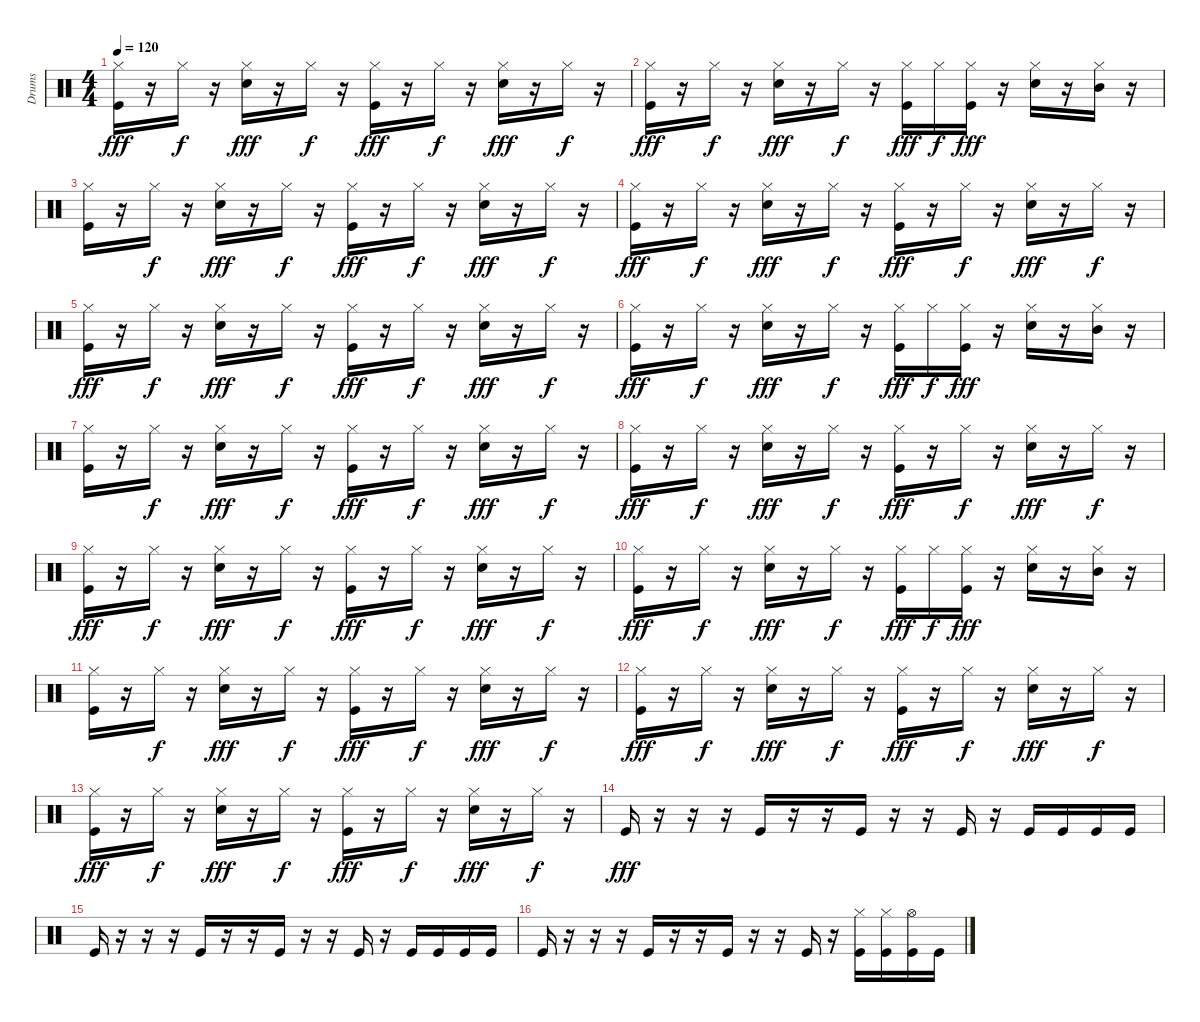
\track ("Drums" "Drums") {instrument percussion}
\staff {score}
\articulation defaults
\ts (4 4)
\tempo 120
\clef neutral
\ks c
("Hi-Hat (closed)" "Kick (hit)").16{dy fff} r.16 "Hi-Hat (closed)".16{dy f} r.16 ("Hi-Hat (closed)" "Electric Snare (hit)").16{dy fff} r.16 "Hi-Hat (closed)".16{dy f} r.16 ("Hi-Hat (closed)" "Kick (hit)").16{dy fff} r.16 "Hi-Hat (closed)".16{dy f} r.16 ("Hi-Hat (closed)" "Electric Snare (hit)").16{dy fff} r.16 "Hi-Hat (closed)".16{dy f} r.16 |
("Hi-Hat (closed)" "Kick (hit)").16{dy fff} r.16 "Hi-Hat (closed)".16{dy f} r.16 ("Hi-Hat (closed)" "Electric Snare (hit)").16{dy fff} r.16 "Hi-Hat (closed)".16{dy f} r.16 ("Hi-Hat (closed)" "Kick (hit)").16{dy fff} "Hi-Hat (closed)".16{dy f} ("Hi-Hat (closed)" "Kick (hit)").16{dy fff} r.16 ("Hi-Hat (closed)" "Electric Snare (hit)").16 r.16 ("Hi-Hat (closed)" "Mid Tom (hit)").16 r.16 |
("Hi-Hat (closed)" "Kick (hit)").16 r.16 "Hi-Hat (closed)".16{dy f} r.16 ("Hi-Hat (closed)" "Electric Snare (hit)").16{dy fff} r.16 "Hi-Hat (closed)".16{dy f} r.16 ("Hi-Hat (closed)" "Kick (hit)").16{dy fff} r.16 "Hi-Hat (closed)".16{dy f} r.16 ("Hi-Hat (closed)" "Electric Snare (hit)").16{dy fff} r.16 "Hi-Hat (closed)".16{dy f} r.16 |
("Hi-Hat (closed)" "Kick (hit)").16{dy fff} r.16 "Hi-Hat (closed)".16{dy f} r.16 ("Hi-Hat (closed)" "Electric Snare (hit)").16{dy fff} r.16 "Hi-Hat (closed)".16{dy f} r.16 ("Hi-Hat (closed)" "Kick (hit)").16{dy fff} r.16 "Hi-Hat (closed)".16{dy f} r.16 ("Hi-Hat (closed)" "Electric Snare (hit)").16{dy fff} r.16 "Hi-Hat (closed)".16{dy f} r.16 |
("Hi-Hat (closed)" "Kick (hit)").16{dy fff} r.16 "Hi-Hat (closed)".16{dy f} r.16 ("Hi-Hat (closed)" "Electric Snare (hit)").16{dy fff} r.16 "Hi-Hat (closed)".16{dy f} r.16 ("Hi-Hat (closed)" "Kick (hit)").16{dy fff} r.16 "Hi-Hat (closed)".16{dy f} r.16 ("Hi-Hat (closed)" "Electric Snare (hit)").16{dy fff} r.16 "Hi-Hat (closed)".16{dy f} r.16 |
("Hi-Hat (closed)" "Kick (hit)").16{dy fff} r.16 "Hi-Hat (closed)".16{dy f} r.16 ("Hi-Hat (closed)" "Electric Snare (hit)").16{dy fff} r.16 "Hi-Hat (closed)".16{dy f} r.16 ("Hi-Hat (closed)" "Kick (hit)").16{dy fff} "Hi-Hat (closed)".16{dy f} ("Hi-Hat (closed)" "Kick (hit)").16{dy fff} r.16 ("Hi-Hat (closed)" "Electric Snare (hit)").16 r.16 ("Hi-Hat (closed)" "Mid Tom (hit)").16 r.16 |
("Hi-Hat (closed)" "Kick (hit)").16 r.16 "Hi-Hat (closed)".16{dy f} r.16 ("Hi-Hat (closed)" "Electric Snare (hit)").16{dy fff} r.16 "Hi-Hat (closed)".16{dy f} r.16 ("Hi-Hat (closed)" "Kick (hit)").16{dy fff} r.16 "Hi-Hat (closed)".16{dy f} r.16 ("Hi-Hat (closed)" "Electric Snare (hit)").16{dy fff} r.16 "Hi-Hat (closed)".16{dy f} r.16 |
("Hi-Hat (closed)" "Kick (hit)").16{dy fff} r.16 "Hi-Hat (closed)".16{dy f} r.16 ("Hi-Hat (closed)" "Electric Snare (hit)").16{dy fff} r.16 "Hi-Hat (closed)".16{dy f} r.16 ("Hi-Hat (closed)" "Kick (hit)").16{dy fff} r.16 "Hi-Hat (closed)".16{dy f} r.16 ("Hi-Hat (closed)" "Electric Snare (hit)").16{dy fff} r.16 "Hi-Hat (closed)".16{dy f} r.16 |
("Hi-Hat (closed)" "Kick (hit)").16{dy fff} r.16 "Hi-Hat (closed)".16{dy f} r.16 ("Hi-Hat (closed)" "Electric Snare (hit)").16{dy fff} r.16 "Hi-Hat (closed)".16{dy f} r.16 ("Hi-Hat (closed)" "Kick (hit)").16{dy fff} r.16 "Hi-Hat (closed)".16{dy f} r.16 ("Hi-Hat (closed)" "Electric Snare (hit)").16{dy fff} r.16 "Hi-Hat (closed)".16{dy f} r.16 |
("Hi-Hat (closed)" "Kick (hit)").16{dy fff} r.16 "Hi-Hat (closed)".16{dy f} r.16 ("Hi-Hat (closed)" "Electric Snare (hit)").16{dy fff} r.16 "Hi-Hat (closed)".16{dy f} r.16 ("Hi-Hat (closed)" "Kick (hit)").16{dy fff} "Hi-Hat (closed)".16{dy f} ("Hi-Hat (closed)" "Kick (hit)").16{dy fff} r.16 ("Hi-Hat (closed)" "Electric Snare (hit)").16 r.16 ("Hi-Hat (closed)" "Mid Tom (hit)").16 r.16 |
("Hi-Hat (closed)" "Kick (hit)").16 r.16 "Hi-Hat (closed)".16{dy f} r.16 ("Hi-Hat (closed)" "Electric Snare (hit)").16{dy fff} r.16 "Hi-Hat (closed)".16{dy f} r.16 ("Hi-Hat (closed)" "Kick (hit)").16{dy fff} r.16 "Hi-Hat (closed)".16{dy f} r.16 ("Hi-Hat (closed)" "Electric Snare (hit)").16{dy fff} r.16 "Hi-Hat (closed)".16{dy f} r.16 |
("Hi-Hat (closed)" "Kick (hit)").16{dy fff} r.16 "Hi-Hat (closed)".16{dy f} r.16 ("Hi-Hat (closed)" "Electric Snare (hit)").16{dy fff} r.16 "Hi-Hat (closed)".16{dy f} r.16 ("Hi-Hat (closed)" "Kick (hit)").16{dy fff} r.16 "Hi-Hat (closed)".16{dy f} r.16 ("Hi-Hat (closed)" "Electric Snare (hit)").16{dy fff} r.16 "Hi-Hat (closed)".16{dy f} r.16 |
("Hi-Hat (closed)" "Kick (hit)").16{dy fff} r.16 "Hi-Hat (closed)".16{dy f} r.16 ("Hi-Hat (closed)" "Electric Snare (hit)").16{dy fff} r.16 "Hi-Hat (closed)".16{dy f} r.16 ("Hi-Hat (closed)" "Kick (hit)").16{dy fff} r.16 "Hi-Hat (closed)".16{dy f} r.16 ("Hi-Hat (closed)" "Electric Snare (hit)").16{dy fff} r.16 "Hi-Hat (closed)".16{dy f} r.16 |
"Kick (hit)".16{dy fff} r.16 r.16 r.16 "Kick (hit)".16 r.16 r.16 "Kick (hit)".16 r.16 r.16 "Kick (hit)".16 r.16 "Kick (hit)".16 "Kick (hit)".16 "Kick (hit)".16 "Kick (hit)".16 |
"Kick (hit)".16 r.16 r.16 r.16 "Kick (hit)".16 r.16 r.16 "Kick (hit)".16 r.16 r.16 "Kick (hit)".16 r.16 "Kick (hit)".16 "Kick (hit)".16 "Kick (hit)".16 "Kick (hit)".16 |
"Kick (hit)".16 r.16 r.16 r.16 "Kick (hit)".16 r.16 r.16 "Kick (hit)".16 r.16 r.16 "Kick (hit)".16 r.16 ("Hi-Hat (closed)" "Kick (hit)").16 ("Hi-Hat (closed)" "Kick (hit)").16 ("Hi-Hat (open)" "Kick (hit)").16 "Kick (hit)".16
